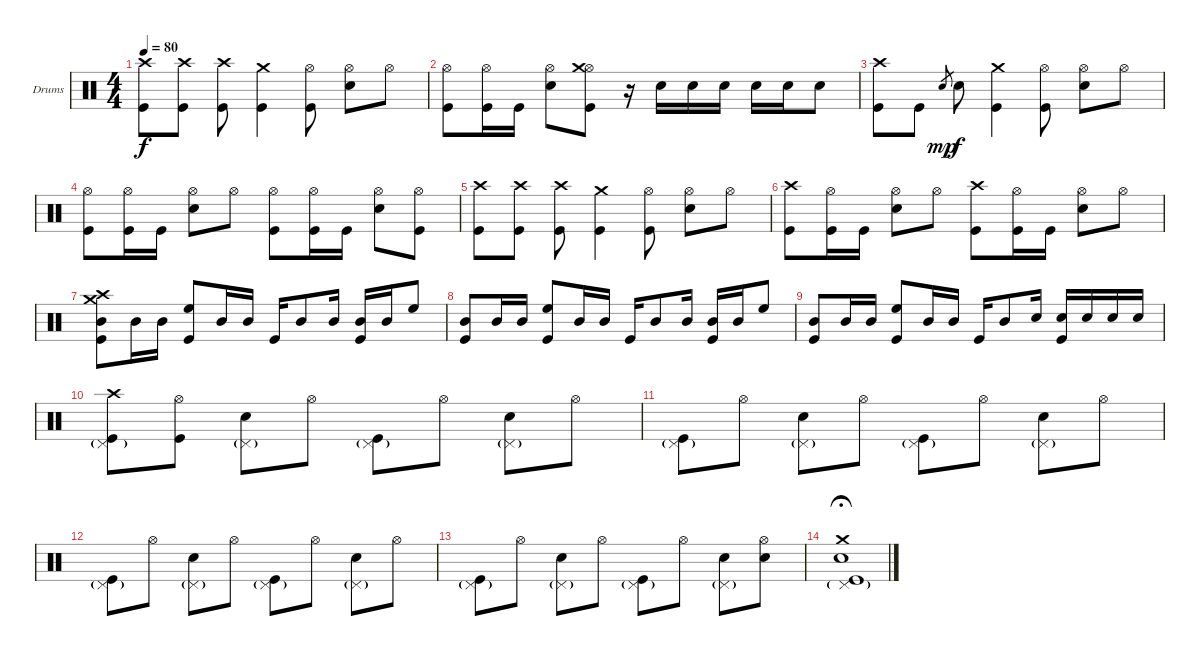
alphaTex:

\defaultSystemsLayout 4
\bracketExtendMode groupsimilarinstruments
\firstSystemTrackNameOrientation horizontal
\otherSystemsTrackNameOrientation horizontal
\track ("Drumkit" "Drums") {instrument percussion}
\staff {score}
\articulation defaults
\ts (4 4)
\tempo 80
\clef neutral
\scale
1.02648
\ks c
("Crash high (hit)" "Kick (hit)").8{dy f} ("Crash high (hit)" "Kick (hit)").8 ("Crash high (hit)" "Kick (hit)").8 ("Crash medium (hit)" "Kick (hit)").4 ("Hi-Hat (open)" "Kick (hit)").8 ("Hi-Hat (open)" "Snare (hit) 2").8 "Hi-Hat (open)".8 |
\scale
0.973518 ("Hi-Hat (open)" "Kick (hit)").8 ("Hi-Hat (open)" "Kick (hit)").16 "Kick (hit)".16 ("Hi-Hat (open)" "Snare (hit) 2").8 ("Hi-Hat (open)" "Crash medium (hit)" "Kick (hit)").8 r.16 "Snare (hit) 2".16 "Snare (hit) 2".16 "Snare (hit) 2".16 "Snare (hit) 2".16 "Snare (hit) 2".16 "Snare (hit) 2".8 |
\scale
1.02648 ("Crash high (hit)" "Kick (hit)").8 "Kick (hit)".8 "Snare (hit) 2".8{gr dy mp} "Snare (hit) 2".8{dy f} ("Crash medium (hit)" "Kick (hit)").4 ("Hi-Hat (open)" "Kick (hit)").8 ("Hi-Hat (open)" "Snare (hit) 2").8 "Hi-Hat (open)".8 |
\scale
0.973518 ("Hi-Hat (open)" "Kick (hit)").8 ("Hi-Hat (open)" "Kick (hit)").16 "Kick (hit)".16 ("Hi-Hat (open)" "Snare (hit) 2").8 "Hi-Hat (open)".8 ("Hi-Hat (open)" "Kick (hit)").8 ("Hi-Hat (open)" "Kick (hit)").16 "Kick (hit)".16 ("Hi-Hat (open)" "Snare (hit) 2").8 ("Hi-Hat (open)" "Kick (hit)").8 |
\scale
1.02648 ("Crash high (hit)" "Kick (hit)").8 ("Crash high (hit)" "Kick (hit)").8 ("Crash high (hit)" "Kick (hit)").8 ("Crash medium (hit)" "Kick (hit)").4 ("Hi-Hat (open)" "Kick (hit)").8 ("Hi-Hat (open)" "Snare (hit) 2").8 "Hi-Hat (open)".8 |
\scale
0.973518 ("Crash high (hit)" "Kick (hit)").8 ("Hi-Hat (open)" "Kick (hit)").16 "Kick (hit)".16 ("Hi-Hat (open)" "Snare (hit) 2").8 "Hi-Hat (open)".8 ("Crash high (hit)" "Kick (hit)").8 ("Hi-Hat (open)" "Kick (hit)").16 "Kick (hit)".16 ("Hi-Hat (open)" "Snare (hit) 2").8 "Hi-Hat (open)".8 |
\scale
1.02648 ("Crash medium (hit)" "Crash high (hit)" "Mid Tom (hit)" "Kick (hit)").8 "Mid Tom (hit)".16 "Mid Tom (hit)".16 ("High Floor Tom (hit)" "Kick (hit)").8 "Mid Tom (hit)".16 "Mid Tom (hit)".16 "Kick (hit)".16 "Mid Tom (hit)".8 "Mid Tom (hit)".16 ("Mid Tom (hit)" "Kick (hit)").16 "Mid Tom (hit)".16 "High Floor Tom (hit)".8 |
\scale
0.973518 ("Mid Tom (hit)" "Kick (hit)").8 "Mid Tom (hit)".16 "Mid Tom (hit)".16 ("High Floor Tom (hit)" "Kick (hit)").8 "Mid Tom (hit)".16 "Mid Tom (hit)".16 "Kick (hit)".16 "Mid Tom (hit)".8 "Mid Tom (hit)".16 ("Mid Tom (hit)" "Kick (hit)").16 "Mid Tom (hit)".16 "High Floor Tom (hit)".8 |
\scale
1.02648 ("Mid Tom (hit)" "Kick (hit)").8 "Mid Tom (hit)".16 "Mid Tom (hit)".16 ("High Floor Tom (hit)" "Kick (hit)").8 "Mid Tom (hit)".16 "Mid Tom (hit)".16 "Kick (hit)".16 "Mid Tom (hit)".8 "Snare (hit) 2".16 ("Snare (hit) 2" "Kick (hit)").16 "Snare (hit) 2".16 "Snare (hit) 2".16 "Snare (hit) 2".16 |
\scale
0.973518 ("Pedal Hi-Hat (hit)"{g} "Crash high (hit)" "Kick (hit)").8 ("Hi-Hat (open)" "Kick (hit)").8 ("Pedal Hi-Hat (hit)"{g} "Snare (hit) 2").8 "Hi-Hat (open)".8 ("Pedal Hi-Hat (hit)"{g} "Kick (hit)").8 "Hi-Hat (open)".8 ("Pedal Hi-Hat (hit)"{g} "Snare (hit) 2").8 "Hi-Hat (open)".8 |
\scale
1.02648 ("Pedal Hi-Hat (hit)"{g} "Kick (hit)").8 "Hi-Hat (open)".8 ("Pedal Hi-Hat (hit)"{g} "Snare (hit) 2").8 "Hi-Hat (open)".8 ("Pedal Hi-Hat (hit)"{g} "Kick (hit)").8 "Hi-Hat (open)".8 ("Pedal Hi-Hat (hit)"{g} "Snare (hit) 2").8 "Hi-Hat (open)".8 |
\scale
0.973518 ("Pedal Hi-Hat (hit)"{g} "Kick (hit)").8 "Hi-Hat (open)".8 ("Pedal Hi-Hat (hit)"{g} "Snare (hit) 2").8 "Hi-Hat (open)".8 ("Pedal Hi-Hat (hit)"{g} "Kick (hit)").8 "Hi-Hat (open)".8 ("Pedal Hi-Hat (hit)"{g} "Snare (hit) 2").8 "Hi-Hat (open)".8 |
\scale
1.02648 ("Pedal Hi-Hat (hit)"{g} "Kick (hit)").8 "Hi-Hat (open)".8 ("Pedal Hi-Hat (hit)"{g} "Snare (hit) 2").8 "Hi-Hat (open)".8 ("Pedal Hi-Hat (hit)"{g} "Kick (hit)").8 "Hi-Hat (open)".8 ("Pedal Hi-Hat (hit)"{g} "Snare (hit) 2").8 ("Hi-Hat (open)" "Snare (hit) 2").8 |
\scale
0.973518 ("Pedal Hi-Hat (hit)"{g} "Crash medium (hit)" "Snare (hit) 2" "Kick (hit)").1{fermata (medium 0.5)}
